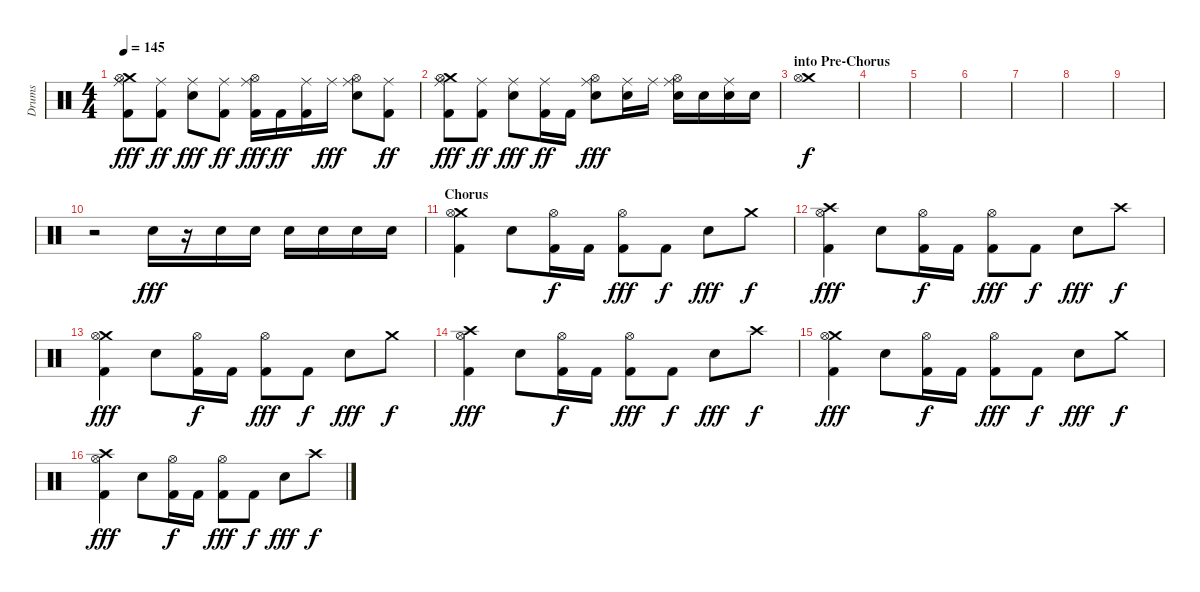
\track ("Drums" "Drums") {instrument percussion}
\staff {score}
\articulation defaults
\ts (4 4)
\tempo 145
\clef neutral
\ks c
("Ride (middle)" "Crash medium (hit)" "Hi-Hat (open)" "Kick (hit) 2").8{dy fff} ("Ride (middle)" "Kick (hit) 2").8{dy ff} ("Ride (middle)" "Snare (hit) 2").8{dy fff} ("Ride (middle)" "Kick (hit) 2").8{dy ff} ("Ride (middle)" "Hi-Hat (open)" "Kick (hit) 2").16{dy fff} "Kick (hit) 2".16{dy ff} ("Ride (middle)" "Kick (hit) 2").16 "Ride (middle)".16{dy fff} ("Ride (middle)" "Hi-Hat (open)" "Snare (hit) 2").8 ("Ride (middle)" "Kick (hit) 2").8{dy ff} |
("Ride (middle)" "Crash medium (hit)" "Hi-Hat (open)" "Kick (hit) 2").8{dy fff} ("Ride (middle)" "Kick (hit) 2").8{dy ff} ("Ride (middle)" "Snare (hit) 2").8{dy fff} ("Ride (middle)" "Kick (hit) 2").16{dy ff} "Kick (hit) 2".16 ("Ride (middle)" "Hi-Hat (open)" "Snare (hit) 2").8{dy fff} ("Ride (middle)" "Snare (hit) 2").16 "Ride (middle)".16 ("Ride (middle)" "Hi-Hat (open)" "Snare (hit) 2").16 "Snare (hit) 2".16 ("Ride (middle)" "Snare (hit) 2").16 "Snare (hit) 2".16 |
\section ("" "into Pre-Chorus")
("Crash medium (hit)" "Hi-Hat (open)").1{dy f} |
|
|
|
|
|
|
r.2 "Snare (hit) 2".16{dy fff} r.16 "Snare (hit) 2".16 "Snare (hit) 2".16 "Snare (hit) 2".16 "Snare (hit) 2".16 "Snare (hit) 2".16 "Snare (hit) 2".16 |
\section ("" "Chorus")
("Crash medium (hit)" "Hi-Hat (open)" "Kick (hit) 2").4 "Snare (hit) 2".8 ("Hi-Hat (open)" "Kick (hit) 2").16{dy f} "Kick (hit) 2".16 ("Hi-Hat (open)" "Kick (hit) 2").8{dy fff} "Kick (hit) 2".8{dy f} "Snare (hit) 2".8{dy fff} "Crash medium (hit)".8{dy f} |
("Crash high (hit)" "Hi-Hat (open)" "Kick (hit) 2").4{dy fff} "Snare (hit) 2".8 ("Hi-Hat (open)" "Kick (hit) 2").16{dy f} "Kick (hit) 2".16 ("Hi-Hat (open)" "Kick (hit) 2").8{dy fff} "Kick (hit) 2".8{dy f} "Snare (hit) 2".8{dy fff} "Crash high (hit)".8{dy f} |
("Crash medium (hit)" "Hi-Hat (open)" "Kick (hit) 2").4{dy fff} "Snare (hit) 2".8 ("Hi-Hat (open)" "Kick (hit) 2").16{dy f} "Kick (hit) 2".16 ("Hi-Hat (open)" "Kick (hit) 2").8{dy fff} "Kick (hit) 2".8{dy f} "Snare (hit) 2".8{dy fff} "Crash medium (hit)".8{dy f} |
("Crash high (hit)" "Hi-Hat (open)" "Kick (hit) 2").4{dy fff} "Snare (hit) 2".8 ("Hi-Hat (open)" "Kick (hit) 2").16{dy f} "Kick (hit) 2".16 ("Hi-Hat (open)" "Kick (hit) 2").8{dy fff} "Kick (hit) 2".8{dy f} "Snare (hit) 2".8{dy fff} "Crash high (hit)".8{dy f} |
("Crash medium (hit)" "Hi-Hat (open)" "Kick (hit) 2").4{dy fff} "Snare (hit) 2".8 ("Hi-Hat (open)" "Kick (hit) 2").16{dy f} "Kick (hit) 2".16 ("Hi-Hat (open)" "Kick (hit) 2").8{dy fff} "Kick (hit) 2".8{dy f} "Snare (hit) 2".8{dy fff} "Crash medium (hit)".8{dy f} |
("Crash high (hit)" "Hi-Hat (open)" "Kick (hit) 2").4{dy fff} "Snare (hit) 2".8 ("Hi-Hat (open)" "Kick (hit) 2").16{dy f} "Kick (hit) 2".16 ("Hi-Hat (open)" "Kick (hit) 2").8{dy fff} "Kick (hit) 2".8{dy f} "Snare (hit) 2".8{dy fff} "Crash high (hit)".8{dy f}
